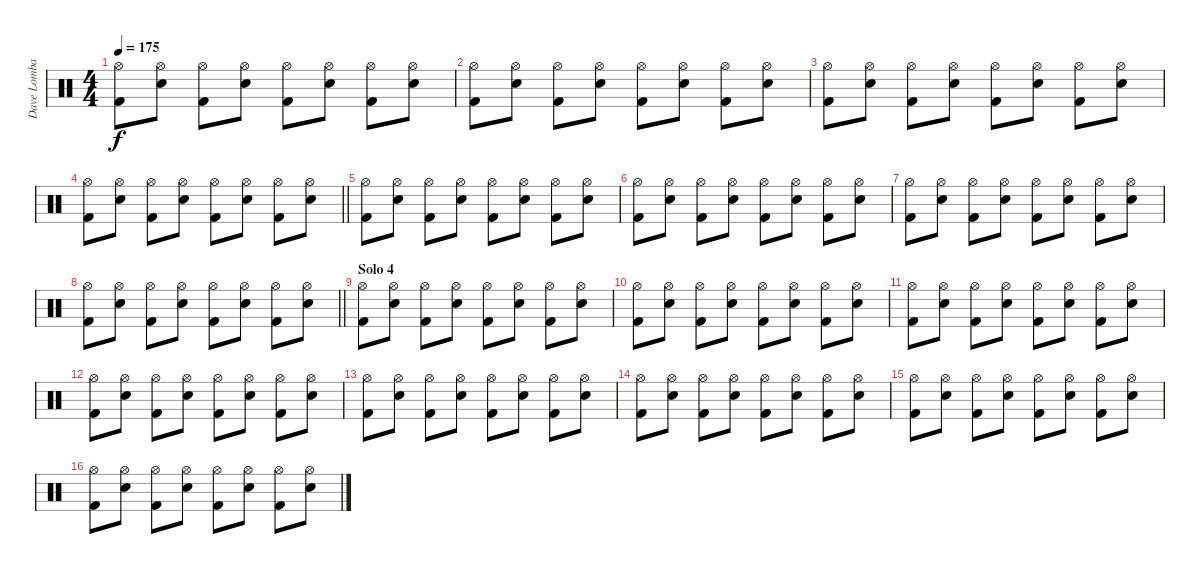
\track ("Dave Lombardo" "Dave Lomba") {instrument percussion}
\staff {score}
\articulation defaults
\ts (4 4)
\tempo 175
\clef neutral
\ks c
("Hi-Hat (open)" "Kick (hit) 2").8{dy f} ("Hi-Hat (open)" "Snare (hit) 2").8 ("Hi-Hat (open)" "Kick (hit) 2").8 ("Hi-Hat (open)" "Snare (hit) 2").8 ("Hi-Hat (open)" "Kick (hit) 2").8 ("Hi-Hat (open)" "Snare (hit) 2").8 ("Hi-Hat (open)" "Kick (hit) 2").8 ("Hi-Hat (open)" "Snare (hit) 2").8 |
("Hi-Hat (open)" "Kick (hit) 2").8 ("Hi-Hat (open)" "Snare (hit) 2").8 ("Hi-Hat (open)" "Kick (hit) 2").8 ("Hi-Hat (open)" "Snare (hit) 2").8 ("Hi-Hat (open)" "Kick (hit) 2").8 ("Hi-Hat (open)" "Snare (hit) 2").8 ("Hi-Hat (open)" "Kick (hit) 2").8 ("Hi-Hat (open)" "Snare (hit) 2").8 |
("Hi-Hat (open)" "Kick (hit) 2").8 ("Hi-Hat (open)" "Snare (hit) 2").8 ("Hi-Hat (open)" "Kick (hit) 2").8 ("Hi-Hat (open)" "Snare (hit) 2").8 ("Hi-Hat (open)" "Kick (hit) 2").8 ("Hi-Hat (open)" "Snare (hit) 2").8 ("Hi-Hat (open)" "Kick (hit) 2").8 ("Hi-Hat (open)" "Snare (hit) 2").8 |
\barLineRight lightlight
("Hi-Hat (open)" "Kick (hit) 2").8 ("Hi-Hat (open)" "Snare (hit) 2").8 ("Hi-Hat (open)" "Kick (hit) 2").8 ("Hi-Hat (open)" "Snare (hit) 2").8 ("Hi-Hat (open)" "Kick (hit) 2").8 ("Hi-Hat (open)" "Snare (hit) 2").8 ("Hi-Hat (open)" "Kick (hit) 2").8 ("Hi-Hat (open)" "Snare (hit) 2").8 |
("Hi-Hat (open)" "Kick (hit) 2").8 ("Hi-Hat (open)" "Snare (hit) 2").8 ("Hi-Hat (open)" "Kick (hit) 2").8 ("Hi-Hat (open)" "Snare (hit) 2").8 ("Hi-Hat (open)" "Kick (hit) 2").8 ("Hi-Hat (open)" "Snare (hit) 2").8 ("Hi-Hat (open)" "Kick (hit) 2").8 ("Hi-Hat (open)" "Snare (hit) 2").8 |
("Hi-Hat (open)" "Kick (hit) 2").8 ("Hi-Hat (open)" "Snare (hit) 2").8 ("Hi-Hat (open)" "Kick (hit) 2").8 ("Hi-Hat (open)" "Snare (hit) 2").8 ("Hi-Hat (open)" "Kick (hit) 2").8 ("Hi-Hat (open)" "Snare (hit) 2").8 ("Hi-Hat (open)" "Kick (hit) 2").8 ("Hi-Hat (open)" "Snare (hit) 2").8 |
("Hi-Hat (open)" "Kick (hit) 2").8 ("Hi-Hat (open)" "Snare (hit) 2").8 ("Hi-Hat (open)" "Kick (hit) 2").8 ("Hi-Hat (open)" "Snare (hit) 2").8 ("Hi-Hat (open)" "Kick (hit) 2").8 ("Hi-Hat (open)" "Snare (hit) 2").8 ("Hi-Hat (open)" "Kick (hit) 2").8 ("Hi-Hat (open)" "Snare (hit) 2").8 |
\barLineRight lightlight
("Hi-Hat (open)" "Kick (hit) 2").8 ("Hi-Hat (open)" "Snare (hit) 2").8 ("Hi-Hat (open)" "Kick (hit) 2").8 ("Hi-Hat (open)" "Snare (hit) 2").8 ("Hi-Hat (open)" "Kick (hit) 2").8 ("Hi-Hat (open)" "Snare (hit) 2").8 ("Hi-Hat (open)" "Kick (hit) 2").8 ("Hi-Hat (open)" "Snare (hit) 2").8 |
\section ("" "Solo 4")
("Hi-Hat (open)" "Kick (hit) 2").8 ("Hi-Hat (open)" "Snare (hit) 2").8 ("Hi-Hat (open)" "Kick (hit) 2").8 ("Hi-Hat (open)" "Snare (hit) 2").8 ("Hi-Hat (open)" "Kick (hit) 2").8 ("Hi-Hat (open)" "Snare (hit) 2").8 ("Hi-Hat (open)" "Kick (hit) 2").8 ("Hi-Hat (open)" "Snare (hit) 2").8 |
("Hi-Hat (open)" "Kick (hit) 2").8 ("Hi-Hat (open)" "Snare (hit) 2").8 ("Hi-Hat (open)" "Kick (hit) 2").8 ("Hi-Hat (open)" "Snare (hit) 2").8 ("Hi-Hat (open)" "Kick (hit) 2").8 ("Hi-Hat (open)" "Snare (hit) 2").8 ("Hi-Hat (open)" "Kick (hit) 2").8 ("Hi-Hat (open)" "Snare (hit) 2").8 |
("Hi-Hat (open)" "Kick (hit) 2").8 ("Hi-Hat (open)" "Snare (hit) 2").8 ("Hi-Hat (open)" "Kick (hit) 2").8 ("Hi-Hat (open)" "Snare (hit) 2").8 ("Hi-Hat (open)" "Kick (hit) 2").8 ("Hi-Hat (open)" "Snare (hit) 2").8 ("Hi-Hat (open)" "Kick (hit) 2").8 ("Hi-Hat (open)" "Snare (hit) 2").8 |
("Hi-Hat (open)" "Kick (hit) 2").8 ("Hi-Hat (open)" "Snare (hit) 2").8 ("Hi-Hat (open)" "Kick (hit) 2").8 ("Hi-Hat (open)" "Snare (hit) 2").8 ("Hi-Hat (open)" "Kick (hit) 2").8 ("Hi-Hat (open)" "Snare (hit) 2").8 ("Hi-Hat (open)" "Kick (hit) 2").8 ("Hi-Hat (open)" "Snare (hit) 2").8 |
("Hi-Hat (open)" "Kick (hit) 2").8 ("Hi-Hat (open)" "Snare (hit) 2").8 ("Hi-Hat (open)" "Kick (hit) 2").8 ("Hi-Hat (open)" "Snare (hit) 2").8 ("Hi-Hat (open)" "Kick (hit) 2").8 ("Hi-Hat (open)" "Snare (hit) 2").8 ("Hi-Hat (open)" "Kick (hit) 2").8 ("Hi-Hat (open)" "Snare (hit) 2").8 |
("Hi-Hat (open)" "Kick (hit) 2").8 ("Hi-Hat (open)" "Snare (hit) 2").8 ("Hi-Hat (open)" "Kick (hit) 2").8 ("Hi-Hat (open)" "Snare (hit) 2").8 ("Hi-Hat (open)" "Kick (hit) 2").8 ("Hi-Hat (open)" "Snare (hit) 2").8 ("Hi-Hat (open)" "Kick (hit) 2").8 ("Hi-Hat (open)" "Snare (hit) 2").8 |
("Hi-Hat (open)" "Kick (hit) 2").8 ("Hi-Hat (open)" "Snare (hit) 2").8 ("Hi-Hat (open)" "Kick (hit) 2").8 ("Hi-Hat (open)" "Snare (hit) 2").8 ("Hi-Hat (open)" "Kick (hit) 2").8 ("Hi-Hat (open)" "Snare (hit) 2").8 ("Hi-Hat (open)" "Kick (hit) 2").8 ("Hi-Hat (open)" "Snare (hit) 2").8 |
("Hi-Hat (open)" "Kick (hit) 2").8 ("Hi-Hat (open)" "Snare (hit) 2").8 ("Hi-Hat (open)" "Kick (hit) 2").8 ("Hi-Hat (open)" "Snare (hit) 2").8 ("Hi-Hat (open)" "Kick (hit) 2").8 ("Hi-Hat (open)" "Snare (hit) 2").8 ("Hi-Hat (open)" "Kick (hit) 2").8 ("Hi-Hat (open)" "Snare (hit) 2").8
